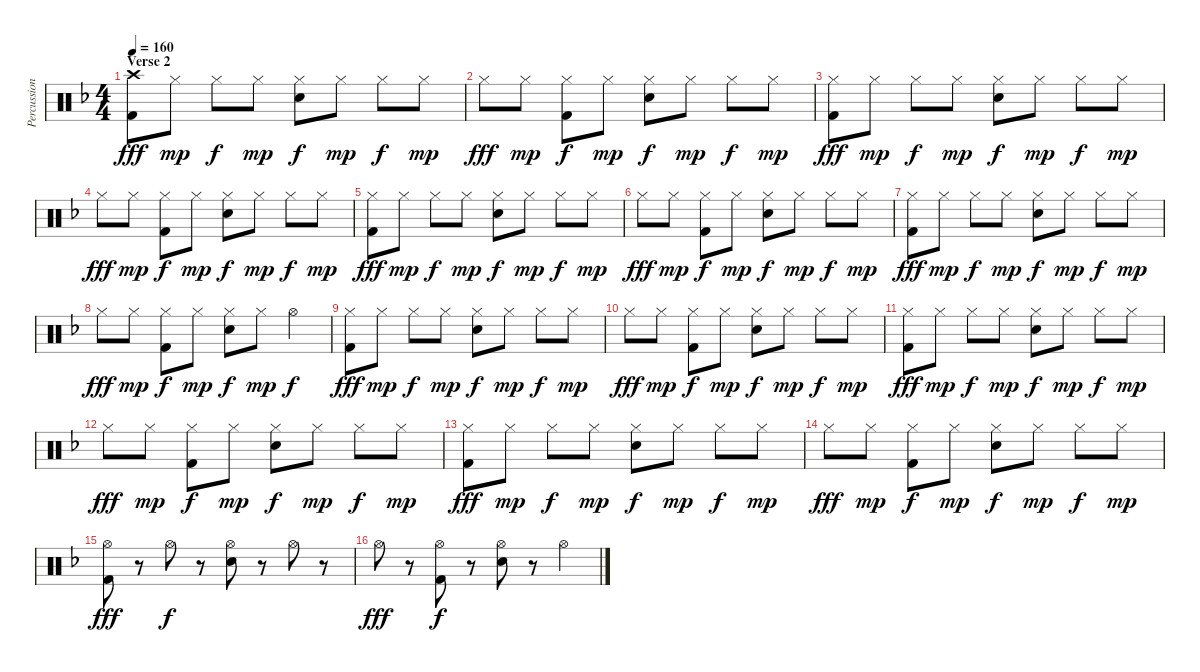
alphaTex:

\track ("Percussion" "Percussion") {instrument percussion}
\staff {score}
\articulation defaults
\ts (4 4)
\section ("" "Verse 2")
\tempo 160
\clef neutral
\ks f
("Crash high (hit)" "Kick (hit) 2").8{dy fff} "Hi-Hat (closed)".8{dy mp} "Hi-Hat (closed)".8{dy f} "Hi-Hat (closed)".8{dy mp} ("Hi-Hat (closed)" "Electric Snare (hit)").8{dy f} "Hi-Hat (closed)".8{dy mp} "Hi-Hat (closed)".8{dy f} "Hi-Hat (closed)".8{dy mp} |
"Hi-Hat (closed)".8{dy fff} "Hi-Hat (closed)".8{dy mp} ("Hi-Hat (closed)" "Kick (hit) 2").8{dy f} "Hi-Hat (closed)".8{dy mp} ("Hi-Hat (closed)" "Electric Snare (hit)").8{dy f} "Hi-Hat (closed)".8{dy mp} "Hi-Hat (closed)".8{dy f} "Hi-Hat (closed)".8{dy mp} |
("Hi-Hat (closed)" "Kick (hit) 2").8{dy fff} "Hi-Hat (closed)".8{dy mp} "Hi-Hat (closed)".8{dy f} "Hi-Hat (closed)".8{dy mp} ("Hi-Hat (closed)" "Electric Snare (hit)").8{dy f} "Hi-Hat (closed)".8{dy mp} "Hi-Hat (closed)".8{dy f} "Hi-Hat (closed)".8{dy mp} |
"Hi-Hat (closed)".8{dy fff} "Hi-Hat (closed)".8{dy mp} ("Hi-Hat (closed)" "Kick (hit) 2").8{dy f} "Hi-Hat (closed)".8{dy mp} ("Hi-Hat (closed)" "Electric Snare (hit)").8{dy f} "Hi-Hat (closed)".8{dy mp} "Hi-Hat (closed)".8{dy f} "Hi-Hat (closed)".8{dy mp} |
("Hi-Hat (closed)" "Kick (hit) 2").8{dy fff} "Hi-Hat (closed)".8{dy mp} "Hi-Hat (closed)".8{dy f} "Hi-Hat (closed)".8{dy mp} ("Hi-Hat (closed)" "Electric Snare (hit)").8{dy f} "Hi-Hat (closed)".8{dy mp} "Hi-Hat (closed)".8{dy f} "Hi-Hat (closed)".8{dy mp} |
"Hi-Hat (closed)".8{dy fff} "Hi-Hat (closed)".8{dy mp} ("Hi-Hat (closed)" "Kick (hit) 2").8{dy f} "Hi-Hat (closed)".8{dy mp} ("Hi-Hat (closed)" "Electric Snare (hit)").8{dy f} "Hi-Hat (closed)".8{dy mp} "Hi-Hat (closed)".8{dy f} "Hi-Hat (closed)".8{dy mp} |
("Hi-Hat (closed)" "Kick (hit) 2").8{dy fff} "Hi-Hat (closed)".8{dy mp} "Hi-Hat (closed)".8{dy f} "Hi-Hat (closed)".8{dy mp} ("Hi-Hat (closed)" "Electric Snare (hit)").8{dy f} "Hi-Hat (closed)".8{dy mp} "Hi-Hat (closed)".8{dy f} "Hi-Hat (closed)".8{dy mp} |
"Hi-Hat (closed)".8{dy fff} "Hi-Hat (closed)".8{dy mp} ("Hi-Hat (closed)" "Kick (hit) 2").8{dy f} "Hi-Hat (closed)".8{dy mp} ("Hi-Hat (closed)" "Electric Snare (hit)").8{dy f} "Hi-Hat (closed)".8{dy mp} "Hi-Hat (open)".4{dy f} |
("Hi-Hat (closed)" "Kick (hit) 2").8{dy fff} "Hi-Hat (closed)".8{dy mp} "Hi-Hat (closed)".8{dy f} "Hi-Hat (closed)".8{dy mp} ("Hi-Hat (closed)" "Electric Snare (hit)").8{dy f} "Hi-Hat (closed)".8{dy mp} "Hi-Hat (closed)".8{dy f} "Hi-Hat (closed)".8{dy mp} |
"Hi-Hat (closed)".8{dy fff} "Hi-Hat (closed)".8{dy mp} ("Hi-Hat (closed)" "Kick (hit) 2").8{dy f} "Hi-Hat (closed)".8{dy mp} ("Hi-Hat (closed)" "Electric Snare (hit)").8{dy f} "Hi-Hat (closed)".8{dy mp} "Hi-Hat (closed)".8{dy f} "Hi-Hat (closed)".8{dy mp} |
("Hi-Hat (closed)" "Kick (hit) 2").8{dy fff} "Hi-Hat (closed)".8{dy mp} "Hi-Hat (closed)".8{dy f} "Hi-Hat (closed)".8{dy mp} ("Hi-Hat (closed)" "Electric Snare (hit)").8{dy f} "Hi-Hat (closed)".8{dy mp} "Hi-Hat (closed)".8{dy f} "Hi-Hat (closed)".8{dy mp} |
"Hi-Hat (closed)".8{dy fff} "Hi-Hat (closed)".8{dy mp} ("Hi-Hat (closed)" "Kick (hit) 2").8{dy f} "Hi-Hat (closed)".8{dy mp} ("Hi-Hat (closed)" "Electric Snare (hit)").8{dy f} "Hi-Hat (closed)".8{dy mp} "Hi-Hat (closed)".8{dy f} "Hi-Hat (closed)".8{dy mp} |
("Hi-Hat (closed)" "Kick (hit) 2").8{dy fff} "Hi-Hat (closed)".8{dy mp} "Hi-Hat (closed)".8{dy f} "Hi-Hat (closed)".8{dy mp} ("Hi-Hat (closed)" "Electric Snare (hit)").8{dy f} "Hi-Hat (closed)".8{dy mp} "Hi-Hat (closed)".8{dy f} "Hi-Hat (closed)".8{dy mp} |
"Hi-Hat (closed)".8{dy fff} "Hi-Hat (closed)".8{dy mp} ("Hi-Hat (closed)" "Kick (hit) 2").8{dy f} "Hi-Hat (closed)".8{dy mp} ("Hi-Hat (closed)" "Electric Snare (hit)").8{dy f} "Hi-Hat (closed)".8{dy mp} "Hi-Hat (closed)".8{dy f} "Hi-Hat (closed)".8{dy mp} |
("Hi-Hat (open)" "Kick (hit) 2").8{dy fff} r.8 "Hi-Hat (open)".8{dy f} r.8 ("Hi-Hat (open)" "Electric Snare (hit)").8 r.8 "Hi-Hat (open)".8 r.8 |
"Hi-Hat (open)".8{dy fff} r.8 ("Hi-Hat (open)" "Kick (hit) 2").8{dy f} r.8 ("Hi-Hat (open)" "Electric Snare (hit)").8 r.8 "Hi-Hat (open)".4
